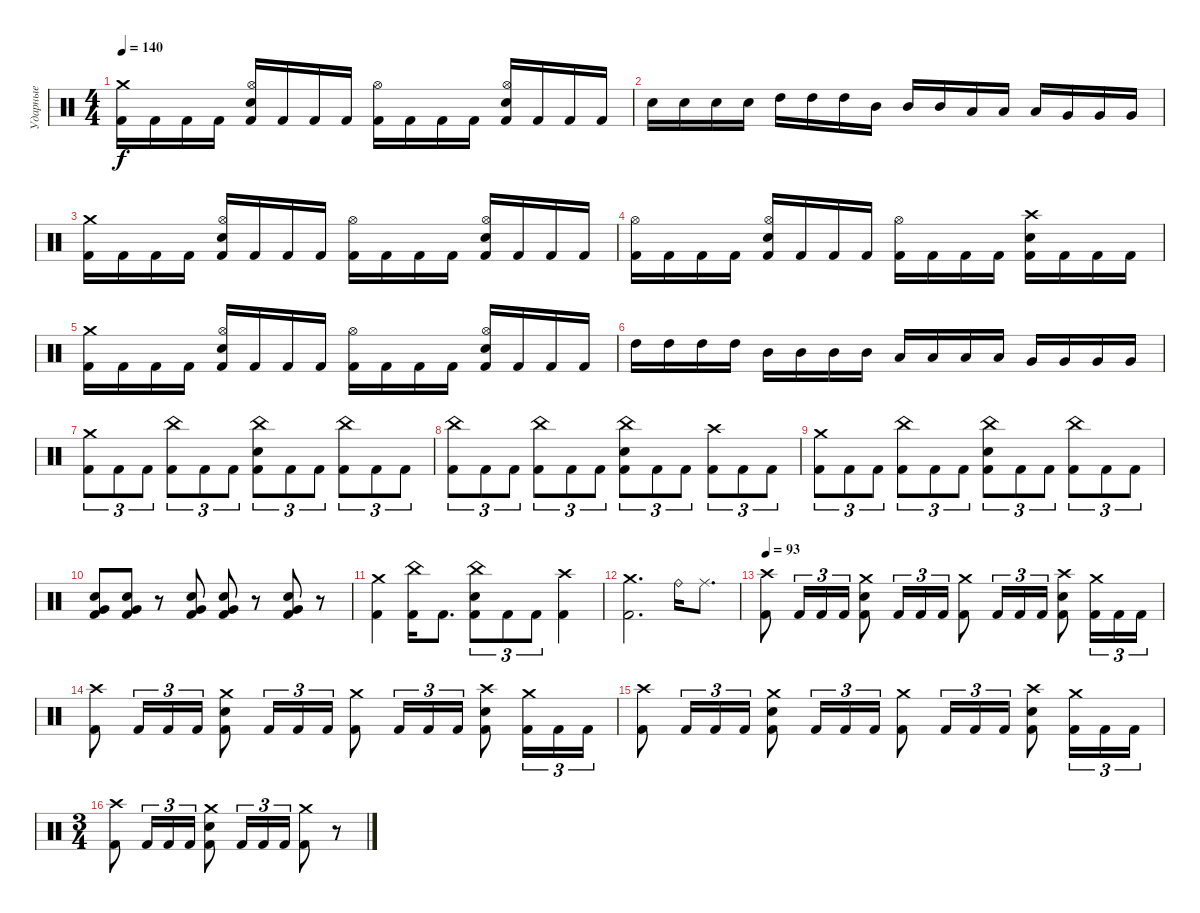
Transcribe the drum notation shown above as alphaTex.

\track ("Ударные" "Ударные") {instrument percussion}
\staff {score}
\articulation defaults
\ts (4 4)
\tempo 140
\clef neutral
\ks c
("Crash medium (hit)" "Kick (hit) 2").16{dy f} "Kick (hit) 2".16 "Kick (hit) 2".16 "Kick (hit) 2".16 ("Hi-Hat (open)" "Electric Snare (hit)" "Kick (hit) 2").16 "Kick (hit) 2".16 "Kick (hit) 2".16 "Kick (hit) 2".16 ("Hi-Hat (open)" "Kick (hit) 2").16 "Kick (hit) 2".16 "Kick (hit) 2".16 "Kick (hit) 2".16 ("Hi-Hat (open)" "Electric Snare (hit)" "Kick (hit) 2").16 "Kick (hit) 2".16 "Kick (hit) 2".16 "Kick (hit) 2".16 |
"Electric Snare (hit)".16 "Electric Snare (hit)".16 "Electric Snare (hit)".16 "Electric Snare (hit)".16 "High Tom (hit)".16 "High Tom (hit)".16 "High Tom (hit)".16 "Mid Tom (hit)".16 "Mid Tom (hit)".16 "Mid Tom (hit)".16 "Low Tom (hit)".16 "Low Tom (hit)".16 "Low Tom (hit)".16 "Very Low Tom (hit)".16 "Very Low Tom (hit)".16 "Very Low Tom (hit)".16 |
("Crash medium (hit)" "Kick (hit) 2").16 "Kick (hit) 2".16 "Kick (hit) 2".16 "Kick (hit) 2".16 ("Hi-Hat (open)" "Electric Snare (hit)" "Kick (hit) 2").16 "Kick (hit) 2".16 "Kick (hit) 2".16 "Kick (hit) 2".16 ("Hi-Hat (open)" "Kick (hit) 2").16 "Kick (hit) 2".16 "Kick (hit) 2".16 "Kick (hit) 2".16 ("Hi-Hat (open)" "Electric Snare (hit)" "Kick (hit) 2").16 "Kick (hit) 2".16 "Kick (hit) 2".16 "Kick (hit) 2".16 |
("Hi-Hat (open)" "Kick (hit) 2").16 "Kick (hit) 2".16 "Kick (hit) 2".16 "Kick (hit) 2".16 ("Hi-Hat (open)" "Electric Snare (hit)" "Kick (hit) 2").16 "Kick (hit) 2".16 "Kick (hit) 2".16 "Kick (hit) 2".16 ("Hi-Hat (open)" "Kick (hit) 2").16 "Kick (hit) 2".16 "Kick (hit) 2".16 "Kick (hit) 2".16 ("Crash high (hit)" "Electric Snare (hit)" "Kick (hit) 2").16 "Kick (hit) 2".16 "Kick (hit) 2".16 "Kick (hit) 2".16 |
("Crash medium (hit)" "Kick (hit) 2").16 "Kick (hit) 2".16 "Kick (hit) 2".16 "Kick (hit) 2".16 ("Hi-Hat (open)" "Electric Snare (hit)" "Kick (hit) 2").16 "Kick (hit) 2".16 "Kick (hit) 2".16 "Kick (hit) 2".16 ("Hi-Hat (open)" "Kick (hit) 2").16 "Kick (hit) 2".16 "Kick (hit) 2".16 "Kick (hit) 2".16 ("Hi-Hat (open)" "Electric Snare (hit)" "Kick (hit) 2").16 "Kick (hit) 2".16 "Kick (hit) 2".16 "Kick (hit) 2".16 |
"High Tom (hit)".16 "High Tom (hit)".16 "High Tom (hit)".16 "High Tom (hit)".16 "Mid Tom (hit)".16 "Mid Tom (hit)".16 "Mid Tom (hit)".16 "Mid Tom (hit)".16 "Low Tom (hit)".16 "Low Tom (hit)".16 "Low Tom (hit)".16 "Low Tom (hit)".16 "Very Low Tom (hit)".16 "Very Low Tom (hit)".16 "Very Low Tom (hit)".16 "Very Low Tom (hit)".16 |
("Crash medium (hit)" "Kick (hit) 2").8{tu (3 2)} "Kick (hit) 2".8{tu (3 2)} "Kick (hit) 2".8{tu (3 2)} ("China (hit)" "Kick (hit) 2").8{tu (3 2)} "Kick (hit) 2".8{tu (3 2)} "Kick (hit) 2".8{tu (3 2)} ("China (hit)" "Electric Snare (hit)" "Kick (hit) 2").8{tu (3 2)} "Kick (hit) 2".8{tu (3 2)} "Kick (hit) 2".8{tu (3 2)} ("China (hit)" "Kick (hit) 2").8{tu (3 2)} "Kick (hit) 2".8{tu (3 2)} "Kick (hit) 2".8{tu (3 2)} |
("China (hit)" "Kick (hit) 2").8{tu (3 2)} "Kick (hit) 2".8{tu (3 2)} "Kick (hit) 2".8{tu (3 2)} ("China (hit)" "Kick (hit) 2").8{tu (3 2)} "Kick (hit) 2".8{tu (3 2)} "Kick (hit) 2".8{tu (3 2)} ("China (hit)" "Electric Snare (hit)" "Kick (hit) 2").8{tu (3 2)} "Kick (hit) 2".8{tu (3 2)} "Kick (hit) 2".8{tu (3 2)} ("Crash high (hit)" "Kick (hit) 2").8{tu (3 2)} "Kick (hit) 2".8{tu (3 2)} "Kick (hit) 2".8{tu (3 2)} |
("Crash medium (hit)" "Kick (hit) 2").8{tu (3 2)} "Kick (hit) 2".8{tu (3 2)} "Kick (hit) 2".8{tu (3 2)} ("China (hit)" "Kick (hit) 2").8{tu (3 2)} "Kick (hit) 2".8{tu (3 2)} "Kick (hit) 2".8{tu (3 2)} ("China (hit)" "Electric Snare (hit)" "Kick (hit) 2").8{tu (3 2)} "Kick (hit) 2".8{tu (3 2)} "Kick (hit) 2".8{tu (3 2)} ("China (hit)" "Kick (hit) 2").8{tu (3 2)} "Kick (hit) 2".8{tu (3 2)} "Kick (hit) 2".8{tu (3 2)} |
("Electric Snare (hit)" "Very Low Tom (hit)" "Kick (hit) 2").8 ("Electric Snare (hit)" "Very Low Tom (hit)" "Kick (hit) 2").8 r.8 ("Electric Snare (hit)" "Very Low Tom (hit)" "Kick (hit) 2").8 ("Electric Snare (hit)" "Very Low Tom (hit)" "Kick (hit) 2").8 r.8 ("Electric Snare (hit)" "Very Low Tom (hit)" "Kick (hit) 2").8 r.8 |
("Crash medium (hit)" "Kick (hit) 2").4 ("China (hit)" "Kick (hit) 2").16 "Kick (hit) 2".8{d} ("China (hit)" "Electric Snare (hit)" "Kick (hit) 2").8{tu (3 2)} "Kick (hit) 2".8{tu (3 2)} "Kick (hit) 2".8{tu (3 2)} ("Crash high (hit)" "Kick (hit) 2").4 |
("Crash medium (hit)" "Kick (hit) 2").2{d} "Ride (bell)".16 "Ride (middle)".8{d} |
\tempo 93
("Crash high (hit)" "Kick (hit) 2").8 "Kick (hit) 2".16{tu (3 2)} "Kick (hit) 2".16{tu (3 2)} "Kick (hit) 2".16{tu (3 2)} ("Crash medium (hit)" "Electric Snare (hit)" "Kick (hit) 2").8 "Kick (hit) 2".16{tu (3 2)} "Kick (hit) 2".16{tu (3 2)} "Kick (hit) 2".16{tu (3 2)} ("Crash medium (hit)" "Kick (hit) 2").8 "Kick (hit) 2".16{tu (3 2)} "Kick (hit) 2".16{tu (3 2)} "Kick (hit) 2".16{tu (3 2)} ("Crash high (hit)" "Electric Snare (hit)" "Kick (hit) 2").8 ("Crash medium (hit)" "Kick (hit) 2").16{tu (3 2)} "Kick (hit) 2".16{tu (3 2)} "Kick (hit) 2".16{tu (3 2)} |
("Crash high (hit)" "Kick (hit) 2").8 "Kick (hit) 2".16{tu (3 2)} "Kick (hit) 2".16{tu (3 2)} "Kick (hit) 2".16{tu (3 2)} ("Crash medium (hit)" "Electric Snare (hit)" "Kick (hit) 2").8 "Kick (hit) 2".16{tu (3 2)} "Kick (hit) 2".16{tu (3 2)} "Kick (hit) 2".16{tu (3 2)} ("Crash medium (hit)" "Kick (hit) 2").8 "Kick (hit) 2".16{tu (3 2)} "Kick (hit) 2".16{tu (3 2)} "Kick (hit) 2".16{tu (3 2)} ("Crash high (hit)" "Electric Snare (hit)" "Kick (hit) 2").8 ("Crash medium (hit)" "Kick (hit) 2").16{tu (3 2)} "Kick (hit) 2".16{tu (3 2)} "Kick (hit) 2".16{tu (3 2)} |
("Crash high (hit)" "Kick (hit) 2").8 "Kick (hit) 2".16{tu (3 2)} "Kick (hit) 2".16{tu (3 2)} "Kick (hit) 2".16{tu (3 2)} ("Crash medium (hit)" "Electric Snare (hit)" "Kick (hit) 2").8 "Kick (hit) 2".16{tu (3 2)} "Kick (hit) 2".16{tu (3 2)} "Kick (hit) 2".16{tu (3 2)} ("Crash medium (hit)" "Kick (hit) 2").8 "Kick (hit) 2".16{tu (3 2)} "Kick (hit) 2".16{tu (3 2)} "Kick (hit) 2".16{tu (3 2)} ("Crash high (hit)" "Electric Snare (hit)" "Kick (hit) 2").8 ("Crash medium (hit)" "Kick (hit) 2").16{tu (3 2)} "Kick (hit) 2".16{tu (3 2)} "Kick (hit) 2".16{tu (3 2)} |
\ts (3 4)
("Crash high (hit)" "Kick (hit) 2").8 "Kick (hit) 2".16{tu (3 2)} "Kick (hit) 2".16{tu (3 2)} "Kick (hit) 2".16{tu (3 2)} ("Crash medium (hit)" "Electric Snare (hit)" "Kick (hit) 2").8 "Kick (hit) 2".16{tu (3 2)} "Kick (hit) 2".16{tu (3 2)} "Kick (hit) 2".16{tu (3 2)} ("Crash medium (hit)" "Kick (hit) 2").8 r.8
